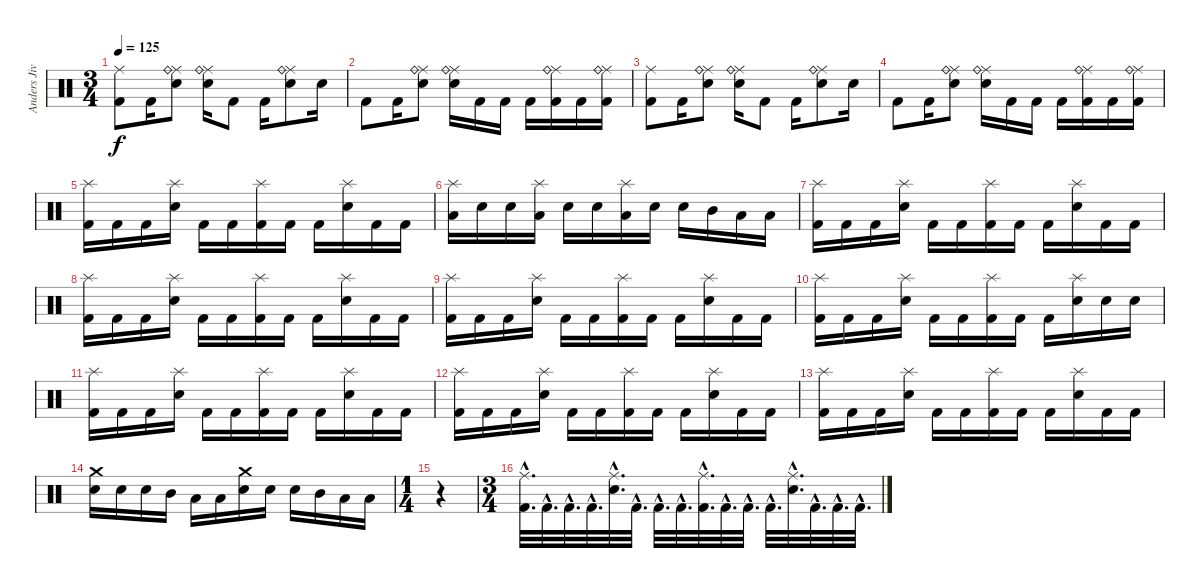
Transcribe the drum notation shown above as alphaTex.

\track ("Anders Jivarp" "Anders Jiv") {instrument percussion}
\staff {score}
\articulation defaults
\ts (3 4)
\tempo 125
\clef neutral
\ks c
("Ride (middle)" "Kick (hit) 2").8{dy f} "Kick (hit) 2".16 ("Ride (middle)" "Ride (bell)" "Electric Snare (hit)").8 ("Ride (middle)" "Ride (bell)" "Electric Snare (hit)").16 "Kick (hit) 2".8 "Kick (hit) 2".16 ("Ride (middle)" "Ride (bell)" "Electric Snare (hit)").8 "Electric Snare (hit)".16 |
"Kick (hit) 2".8 "Kick (hit) 2".16 ("Ride (middle)" "Ride (bell)" "Electric Snare (hit)").8 ("Ride (middle)" "Ride (bell)" "Electric Snare (hit)").16 "Kick (hit) 2".16 "Kick (hit) 2".16 "Kick (hit) 2".16 ("Ride (middle)" "Ride (bell)" "Kick (hit) 2").16 "Kick (hit) 2".16 ("Ride (middle)" "Ride (bell)" "Kick (hit) 2").16 |
("Ride (middle)" "Kick (hit) 2").8 "Kick (hit) 2".16 ("Ride (middle)" "Ride (bell)" "Electric Snare (hit)").8 ("Ride (middle)" "Ride (bell)" "Electric Snare (hit)").16 "Kick (hit) 2".8 "Kick (hit) 2".16 ("Ride (middle)" "Ride (bell)" "Electric Snare (hit)").8 "Electric Snare (hit)".16 |
"Kick (hit) 2".8 "Kick (hit) 2".16 ("Ride (middle)" "Ride (bell)" "Electric Snare (hit)").8 ("Ride (middle)" "Ride (bell)" "Electric Snare (hit)").16 "Kick (hit) 2".16 "Kick (hit) 2".16 "Kick (hit) 2".16 ("Ride (middle)" "Ride (bell)" "Kick (hit) 2").16 "Kick (hit) 2".16 ("Ride (middle)" "Ride (bell)" "Kick (hit) 2").16 |
("Splash (hit)" "Kick (hit) 2").16 "Kick (hit) 2".16 "Kick (hit) 2".16 ("Splash (hit)" "Electric Snare (hit)").16 "Kick (hit) 2".16 "Kick (hit) 2".16 ("Splash (hit)" "Kick (hit) 2").16 "Kick (hit) 2".16 "Kick (hit) 2".16 ("Splash (hit)" "Electric Snare (hit)").16 "Kick (hit) 2".16 "Kick (hit) 2".16 |
("Splash (hit)" "Low Floor Tom (hit)").16 "Electric Snare (hit)".16 "Electric Snare (hit)".16 ("Splash (hit)" "Low Floor Tom (hit)").16 "Electric Snare (hit)".16 "Electric Snare (hit)".16 ("Splash (hit)" "Low Floor Tom (hit)").16 "Electric Snare (hit)".16 "Electric Snare (hit)".16 "Mid Tom (hit)".16 "Low Tom (hit)".16 "Low Floor Tom (hit)".16 |
("Splash (hit)" "Kick (hit) 2").16 "Kick (hit) 2".16 "Kick (hit) 2".16 ("Splash (hit)" "Electric Snare (hit)").16 "Kick (hit) 2".16 "Kick (hit) 2".16 ("Splash (hit)" "Kick (hit) 2").16 "Kick (hit) 2".16 "Kick (hit) 2".16 ("Splash (hit)" "Electric Snare (hit)").16 "Kick (hit) 2".16 "Kick (hit) 2".16 |
("Splash (hit)" "Kick (hit) 2").16 "Kick (hit) 2".16 "Kick (hit) 2".16 ("Splash (hit)" "Electric Snare (hit)").16 "Kick (hit) 2".16 "Kick (hit) 2".16 ("Splash (hit)" "Kick (hit) 2").16 "Kick (hit) 2".16 "Kick (hit) 2".16 ("Splash (hit)" "Electric Snare (hit)").16 "Kick (hit) 2".16 "Kick (hit) 2".16 |
("Splash (hit)" "Kick (hit) 2").16 "Kick (hit) 2".16 "Kick (hit) 2".16 ("Splash (hit)" "Electric Snare (hit)").16 "Kick (hit) 2".16 "Kick (hit) 2".16 ("Splash (hit)" "Kick (hit) 2").16 "Kick (hit) 2".16 "Kick (hit) 2".16 ("Splash (hit)" "Electric Snare (hit)").16 "Kick (hit) 2".16 "Kick (hit) 2".16 |
("Splash (hit)" "Kick (hit) 2").16 "Kick (hit) 2".16 "Kick (hit) 2".16 ("Splash (hit)" "Electric Snare (hit)").16 "Kick (hit) 2".16 "Kick (hit) 2".16 ("Splash (hit)" "Kick (hit) 2").16 "Kick (hit) 2".16 "Kick (hit) 2".16 ("Splash (hit)" "Electric Snare (hit)").16 "Electric Snare (hit)".16 "Electric Snare (hit)".16 |
("Splash (hit)" "Kick (hit) 2").16 "Kick (hit) 2".16 "Kick (hit) 2".16 ("Splash (hit)" "Electric Snare (hit)").16 "Kick (hit) 2".16 "Kick (hit) 2".16 ("Splash (hit)" "Kick (hit) 2").16 "Kick (hit) 2".16 "Kick (hit) 2".16 ("Splash (hit)" "Electric Snare (hit)").16 "Kick (hit) 2".16 "Kick (hit) 2".16 |
("Splash (hit)" "Kick (hit) 2").16 "Kick (hit) 2".16 "Kick (hit) 2".16 ("Splash (hit)" "Electric Snare (hit)").16 "Kick (hit) 2".16 "Kick (hit) 2".16 ("Splash (hit)" "Kick (hit) 2").16 "Kick (hit) 2".16 "Kick (hit) 2".16 ("Splash (hit)" "Electric Snare (hit)").16 "Kick (hit) 2".16 "Kick (hit) 2".16 |
("Splash (hit)" "Kick (hit) 2").16 "Kick (hit) 2".16 "Kick (hit) 2".16 ("Splash (hit)" "Electric Snare (hit)").16 "Kick (hit) 2".16 "Kick (hit) 2".16 ("Splash (hit)" "Kick (hit) 2").16 "Kick (hit) 2".16 "Kick (hit) 2".16 ("Splash (hit)" "Electric Snare (hit)").16 "Kick (hit) 2".16 "Kick (hit) 2".16 |
("Crash medium (hit)" "Electric Snare (hit)").16 "Electric Snare (hit)".16 "Electric Snare (hit)".16 "Mid Tom (hit)".16 "Low Tom (hit)".16 "Low Floor Tom (hit)".16 ("Crash medium (hit)" "Electric Snare (hit)").16 "Electric Snare (hit)".16 "Electric Snare (hit)".16 "Mid Tom (hit)".16 "Low Tom (hit)".16 "Low Floor Tom (hit)".16 |
\ts (1 4)
r.4 |
\ts (3 4)
("Ride (middle)"{hac} "Kick (hit) 2"{hac}).32{d} "Kick (hit) 2"{hac}.32{d} "Kick (hit) 2"{hac}.32{d} "Kick (hit) 2"{hac}.32{d} ("Ride (middle)"{hac} "Electric Snare (hit)"{hac}).32{d} "Kick (hit) 2"{hac}.32{d} "Kick (hit) 2"{hac}.32{d} "Kick (hit) 2"{hac}.32{d} ("Ride (middle)"{hac} "Kick (hit) 2"{hac}).32{d} "Kick (hit) 2"{hac}.32{d} "Kick (hit) 2"{hac}.32{d} "Kick (hit) 2"{hac}.32{d} ("Ride (middle)"{hac} "Electric Snare (hit)"{hac}).32{d} "Kick (hit) 2"{hac}.32{d} "Kick (hit) 2"{hac}.32{d} "Kick (hit) 2"{hac}.32{d}
